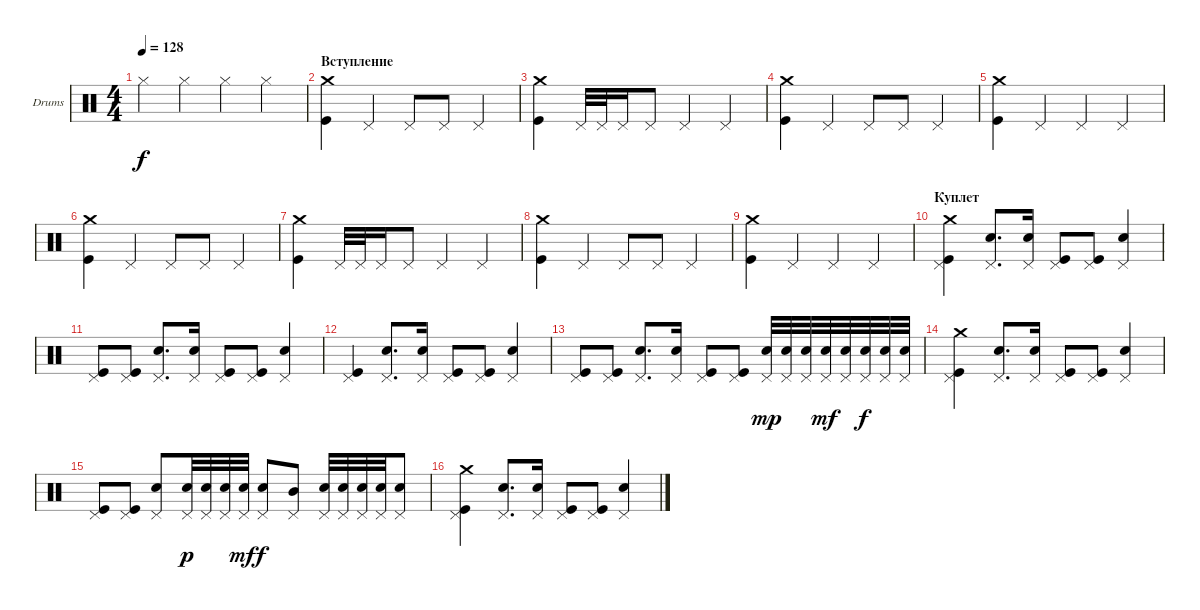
\defaultSystemsLayout 4
\bracketExtendMode groupsimilarinstruments
\firstSystemTrackNameOrientation horizontal
\otherSystemsTrackNameOrientation horizontal
\track ("Е. Кулаков" "Drums") {instrument percussion}
\staff {score}
\articulation defaults
\ts (4 4)
\tempo 128
\clef neutral
\scale
0.474178
\ks c "Hi-Hat (closed)".4{dy f} "Hi-Hat (closed)".4 "Hi-Hat (closed)".4 "Hi-Hat (closed)".4
|
\section ("" "Вступление")
\scale
0.262911 ("Crash medium (hit)" "Kick (hit)").4 "Pedal Hi-Hat (hit)".4 "Pedal Hi-Hat (hit)".8 "Pedal Hi-Hat (hit)".8 "Pedal Hi-Hat (hit)".4 |
("Crash medium (hit)" "Kick (hit)").4 "Pedal Hi-Hat (hit)".32 "Pedal Hi-Hat (hit)".32 "Pedal Hi-Hat (hit)".16 "Pedal Hi-Hat (hit)".8 "Pedal Hi-Hat (hit)".4 "Pedal Hi-Hat (hit)".4 |
("Crash medium (hit)" "Kick (hit)").4 "Pedal Hi-Hat (hit)".4 "Pedal Hi-Hat (hit)".8 "Pedal Hi-Hat (hit)".8 "Pedal Hi-Hat (hit)".4 |
("Crash medium (hit)" "Kick (hit)").4 "Pedal Hi-Hat (hit)".4 "Pedal Hi-Hat (hit)".4 "Pedal Hi-Hat (hit)".4 |
("Crash medium (hit)" "Kick (hit)").4 "Pedal Hi-Hat (hit)".4 "Pedal Hi-Hat (hit)".8 "Pedal Hi-Hat (hit)".8 "Pedal Hi-Hat (hit)".4 |
\scale
0.262911 ("Crash medium (hit)" "Kick (hit)").4 "Pedal Hi-Hat (hit)".32 "Pedal Hi-Hat (hit)".32 "Pedal Hi-Hat (hit)".16 "Pedal Hi-Hat (hit)".8 "Pedal Hi-Hat (hit)".4 "Pedal Hi-Hat (hit)".4 |
("Crash medium (hit)" "Kick (hit)").4 "Pedal Hi-Hat (hit)".4 "Pedal Hi-Hat (hit)".8 "Pedal Hi-Hat (hit)".8 "Pedal Hi-Hat (hit)".4 |
("Crash medium (hit)" "Kick (hit)").4 "Pedal Hi-Hat (hit)".4 "Pedal Hi-Hat (hit)".4 "Pedal Hi-Hat (hit)".4 |
\section ("" "Куплет")
("Crash medium (hit)" "Kick (hit)" "Pedal Hi-Hat (hit)").4 ("Snare (hit) 2" "Pedal Hi-Hat (hit)").8{d} ("Snare (hit) 2" "Pedal Hi-Hat (hit)").16 ("Kick (hit)" "Pedal Hi-Hat (hit)").8 ("Kick (hit)" "Pedal Hi-Hat (hit)").8 ("Snare (hit) 2" "Pedal Hi-Hat (hit)").4 |
("Kick (hit)" "Pedal Hi-Hat (hit)").8 ("Kick (hit)" "Pedal Hi-Hat (hit)").8 ("Snare (hit) 2" "Pedal Hi-Hat (hit)").8{d} ("Snare (hit) 2" "Pedal Hi-Hat (hit)").16 ("Kick (hit)" "Pedal Hi-Hat (hit)").8 ("Kick (hit)" "Pedal Hi-Hat (hit)").8 ("Snare (hit) 2" "Pedal Hi-Hat (hit)").4 |
("Kick (hit)" "Pedal Hi-Hat (hit)").4 ("Snare (hit) 2" "Pedal Hi-Hat (hit)").8{d} ("Snare (hit) 2" "Pedal Hi-Hat (hit)").16 ("Kick (hit)" "Pedal Hi-Hat (hit)").8 ("Kick (hit)" "Pedal Hi-Hat (hit)").8 ("Snare (hit) 2" "Pedal Hi-Hat (hit)").4 |
("Kick (hit)" "Pedal Hi-Hat (hit)").8 ("Kick (hit)" "Pedal Hi-Hat (hit)").8 ("Snare (hit) 2" "Pedal Hi-Hat (hit)").8{d} ("Snare (hit) 2" "Pedal Hi-Hat (hit)").16 ("Kick (hit)" "Pedal Hi-Hat (hit)").8 ("Kick (hit)" "Pedal Hi-Hat (hit)").8 ("Snare (hit) 2" "Pedal Hi-Hat (hit)").32{dy mp} ("Snare (hit) 2" "Pedal Hi-Hat (hit)").32 ("Snare (hit) 2" "Pedal Hi-Hat (hit)").32 ("Snare (hit) 2" "Pedal Hi-Hat (hit)").32{dy mf} ("Snare (hit) 2" "Pedal Hi-Hat (hit)").32 ("Snare (hit) 2" "Pedal Hi-Hat (hit)").32{dy f} ("Snare (hit) 2" "Pedal Hi-Hat (hit)").32 ("Snare (hit) 2" "Pedal Hi-Hat (hit)").32 |
("Crash medium (hit)" "Kick (hit)" "Pedal Hi-Hat (hit)").4 ("Snare (hit) 2" "Pedal Hi-Hat (hit)").8{d} ("Snare (hit) 2" "Pedal Hi-Hat (hit)").16 ("Kick (hit)" "Pedal Hi-Hat (hit)").8 ("Kick (hit)" "Pedal Hi-Hat (hit)").8 ("Snare (hit) 2" "Pedal Hi-Hat (hit)").4 |
("Kick (hit)" "Pedal Hi-Hat (hit)").8 ("Kick (hit)" "Pedal Hi-Hat (hit)").8 ("Snare (hit) 2" "Pedal Hi-Hat (hit)").8 ("Snare (hit) 2" "Pedal Hi-Hat (hit)").32{dy p} ("Snare (hit) 2" "Pedal Hi-Hat (hit)").32 ("Snare (hit) 2" "Pedal Hi-Hat (hit)").32 ("Snare (hit) 2" "Pedal Hi-Hat (hit)").32{dy mf} ("Snare (hit) 2" "Pedal Hi-Hat (hit)").8{dy f} ("Pedal Hi-Hat (hit)" "Mid Tom (hit)").8 ("Snare (hit) 2" "Pedal Hi-Hat (hit)").32 ("Snare (hit) 2" "Pedal Hi-Hat (hit)").32 ("Snare (hit) 2" "Pedal Hi-Hat (hit)").32 ("Snare (hit) 2" "Pedal Hi-Hat (hit)").32 ("Snare (hit) 2" "Pedal Hi-Hat (hit)").8 |
("Crash medium (hit)" "Kick (hit)" "Pedal Hi-Hat (hit)").4 ("Snare (hit) 2" "Pedal Hi-Hat (hit)").8{d} ("Snare (hit) 2" "Pedal Hi-Hat (hit)").16 ("Kick (hit)" "Pedal Hi-Hat (hit)").8 ("Kick (hit)" "Pedal Hi-Hat (hit)").8 ("Snare (hit) 2" "Pedal Hi-Hat (hit)").4
